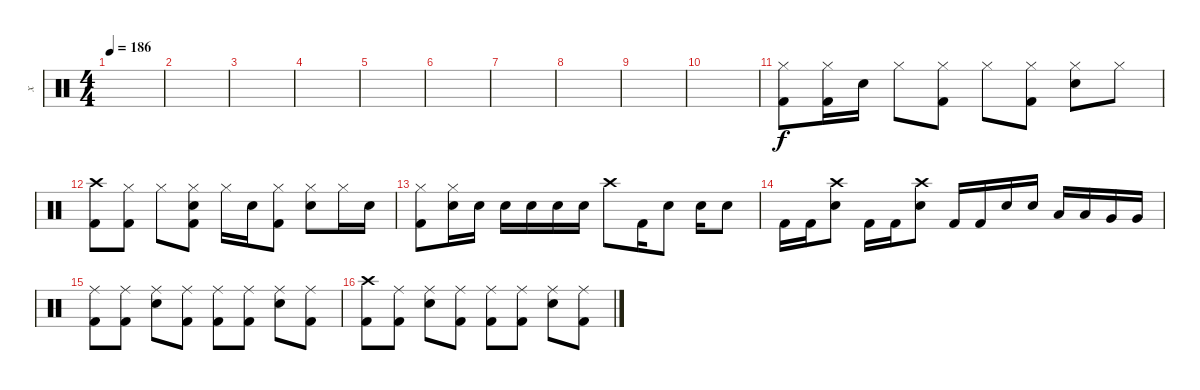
\track ("x" "x") {instrument percussion}
\staff {score}
\articulation defaults
\ts (4 4)
\tempo 186
\clef neutral
\ks c
|
|
|
|
|
|
|
|
|
|
("Hi-Hat (closed)" "Kick (hit) 2").8 ("Hi-Hat (closed)" "Kick (hit) 2").16 "Snare (hit) 2".16 "Hi-Hat (closed)".8 ("Hi-Hat (closed)" "Kick (hit) 2").8 "Hi-Hat (closed)".8 ("Hi-Hat (closed)" "Kick (hit) 2").8 ("Hi-Hat (closed)" "Snare (hit) 2").8 "Hi-Hat (closed)".8 |
("Crash high (hit)" "Kick (hit) 2").8 ("Hi-Hat (closed)" "Kick (hit) 2").8 "Hi-Hat (closed)".8 ("Hi-Hat (closed)" "Snare (hit) 2" "Kick (hit) 2").8 "Hi-Hat (closed)".16 "Snare (hit) 2".16 ("Hi-Hat (closed)" "Kick (hit) 2").8 ("Hi-Hat (closed)" "Snare (hit) 2").8 "Hi-Hat (closed)".16 "Snare (hit) 2".16 |
("Hi-Hat (closed)" "Kick (hit) 2").8 ("Hi-Hat (closed)" "Snare (hit) 2").16 "Snare (hit) 2".16 "Snare (hit) 2".16 "Snare (hit) 2".16 "Snare (hit) 2".16 "Snare (hit) 2".16 "Crash high (hit)".8 "Kick (hit) 2".16 "Snare (hit) 2".8 "Snare (hit) 2".16 "Snare (hit) 2".8 |
"Kick (hit) 2".16 "Kick (hit) 2".16 ("Crash high (hit)" "Snare (hit) 2").8 "Kick (hit) 2".16 "Kick (hit) 2".16 ("Crash high (hit)" "Snare (hit) 2").8 "Kick (hit) 2".16 "Kick (hit) 2".16 "Snare (hit) 2".16 "Snare (hit) 2".16 "Low Tom (hit)".16 "Low Tom (hit)".16 "Very Low Tom (hit)".16 "Very Low Tom (hit)".16 |
("Ride (middle)" "Kick (hit) 2").8 ("Ride (middle)" "Kick (hit) 2").8 ("Ride (middle)" "Snare (hit) 2").8 ("Ride (middle)" "Kick (hit) 2").8 ("Ride (middle)" "Kick (hit) 2").8 ("Ride (middle)" "Kick (hit) 2").8 ("Ride (middle)" "Snare (hit) 2").8 ("Ride (middle)" "Kick (hit) 2").8 |
("Crash high (hit)" "Kick (hit) 2").8 ("Ride (middle)" "Kick (hit) 2").8 ("Ride (middle)" "Snare (hit) 2").8 ("Ride (middle)" "Kick (hit) 2").8 ("Ride (middle)" "Kick (hit) 2").8 ("Ride (middle)" "Kick (hit) 2").8 ("Ride (middle)" "Snare (hit) 2").8 ("Ride (middle)" "Kick (hit) 2").8
